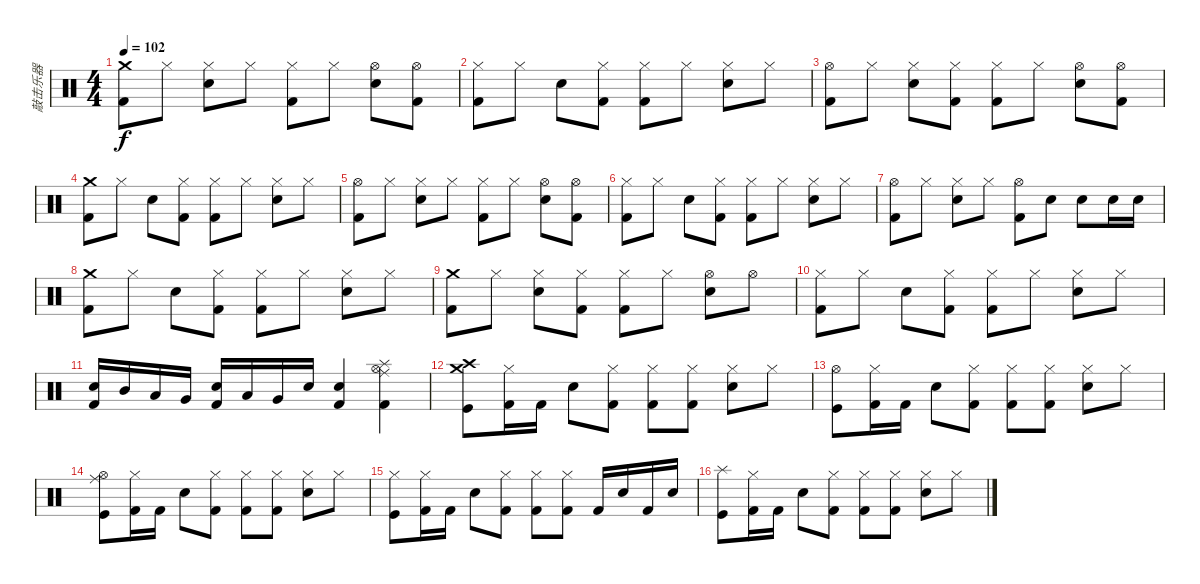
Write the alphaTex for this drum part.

\track ("敲击乐器" "敲击乐器") {instrument percussion}
\staff {score}
\articulation defaults
\ts (4 4)
\tempo 102
\clef neutral
\ks c
("Crash medium (hit)" "Kick (hit) 2").8{dy f} "Hi-Hat (closed)".8 ("Hi-Hat (closed)" "Electric Snare (hit)").8 "Hi-Hat (closed)".8 ("Hi-Hat (closed)" "Kick (hit) 2").8 "Hi-Hat (closed)".8 ("Hi-Hat (open)" "Electric Snare (hit)").8 ("Hi-Hat (open)" "Kick (hit) 2").8 |
("Hi-Hat (closed)" "Kick (hit) 2").8 "Hi-Hat (closed)".8 "Electric Snare (hit)".8 ("Hi-Hat (closed)" "Kick (hit) 2").8 ("Hi-Hat (closed)" "Kick (hit) 2").8 "Hi-Hat (closed)".8 ("Hi-Hat (closed)" "Electric Snare (hit)").8 "Hi-Hat (closed)".8 |
("Hi-Hat (open)" "Kick (hit) 2").8 "Hi-Hat (closed)".8 ("Hi-Hat (closed)" "Electric Snare (hit)").8 ("Hi-Hat (closed)" "Kick (hit) 2").8 ("Hi-Hat (closed)" "Kick (hit) 2").8 "Hi-Hat (closed)".8 ("Hi-Hat (open)" "Electric Snare (hit)").8 ("Hi-Hat (open)" "Kick (hit) 2").8 |
("Crash medium (hit)" "Kick (hit) 2").8 "Hi-Hat (closed)".8 "Electric Snare (hit)".8 ("Hi-Hat (closed)" "Kick (hit) 2").8 ("Hi-Hat (closed)" "Kick (hit) 2").8 "Hi-Hat (closed)".8 ("Hi-Hat (closed)" "Electric Snare (hit)").8 "Hi-Hat (closed)".8 |
("Hi-Hat (open)" "Kick (hit) 2").8 "Hi-Hat (closed)".8 ("Hi-Hat (closed)" "Electric Snare (hit)").8 "Hi-Hat (closed)".8 ("Hi-Hat (closed)" "Kick (hit) 2").8 "Hi-Hat (closed)".8 ("Hi-Hat (open)" "Electric Snare (hit)").8 ("Hi-Hat (open)" "Kick (hit) 2").8 |
("Hi-Hat (closed)" "Kick (hit) 2").8 "Hi-Hat (closed)".8 "Electric Snare (hit)".8 ("Hi-Hat (closed)" "Kick (hit) 2").8 ("Hi-Hat (closed)" "Kick (hit) 2").8 "Hi-Hat (closed)".8 ("Hi-Hat (closed)" "Electric Snare (hit)").8 "Hi-Hat (closed)".8 |
("Hi-Hat (open)" "Kick (hit) 2").8 "Hi-Hat (closed)".8 ("Hi-Hat (closed)" "Electric Snare (hit)").8 "Hi-Hat (closed)".8 ("Hi-Hat (open)" "Kick (hit) 2").8 "Electric Snare (hit)".8 "Electric Snare (hit)".8 "Electric Snare (hit)".16 "Electric Snare (hit)".16 |
("Crash medium (hit)" "Kick (hit) 2").8 "Hi-Hat (closed)".8 "Electric Snare (hit)".8 ("Hi-Hat (closed)" "Kick (hit) 2").8 ("Hi-Hat (closed)" "Kick (hit) 2").8 "Hi-Hat (closed)".8 ("Hi-Hat (closed)" "Electric Snare (hit)").8 "Hi-Hat (closed)".8 |
("Crash medium (hit)" "Kick (hit) 2").8 "Hi-Hat (closed)".8 ("Hi-Hat (closed)" "Electric Snare (hit)").8 ("Hi-Hat (closed)" "Kick (hit) 2").8 ("Hi-Hat (closed)" "Kick (hit) 2").8 "Hi-Hat (closed)".8 ("Hi-Hat (open)" "Electric Snare (hit)").8 "Hi-Hat (open)".8 |
("Hi-Hat (closed)" "Kick (hit) 2").8 "Hi-Hat (closed)".8 "Electric Snare (hit)".8 ("Hi-Hat (closed)" "Kick (hit) 2").8 ("Hi-Hat (closed)" "Kick (hit) 2").8 "Hi-Hat (closed)".8 ("Hi-Hat (closed)" "Electric Snare (hit)").8 "Hi-Hat (closed)".8 |
("Electric Snare (hit)" "Kick (hit) 2").16 "Mid Tom (hit)".16 "Low Tom (hit)".16 "Very Low Tom (hit)".16 ("Electric Snare (hit)" "Kick (hit) 2").16 "Low Tom (hit)".16 "Very Low Tom (hit)".16 "Electric Snare (hit)".16 ("Electric Snare (hit)" "Kick (hit) 2").4 ("Splash (hit)" "Ride (middle)" "Hi-Hat (open)" "Kick (hit) 2").4 |
("Crash medium (hit)" "Crash high (hit)" "Kick (hit)").8 ("Hi-Hat (closed)" "Kick (hit) 2").16 "Kick (hit) 2".16 "Electric Snare (hit)".8 ("Hi-Hat (closed)" "Kick (hit) 2").8 ("Hi-Hat (closed)" "Kick (hit) 2").8 ("Hi-Hat (closed)" "Kick (hit) 2").8 ("Hi-Hat (closed)" "Electric Snare (hit)").8 "Hi-Hat (closed)".8 |
("Hi-Hat (open)" "Kick (hit)").8 ("Hi-Hat (closed)" "Kick (hit) 2").16 "Kick (hit) 2".16 "Electric Snare (hit)".8 ("Hi-Hat (closed)" "Kick (hit) 2").8 ("Hi-Hat (closed)" "Kick (hit) 2").8 ("Hi-Hat (closed)" "Kick (hit) 2").8 ("Hi-Hat (closed)" "Electric Snare (hit)").8 "Hi-Hat (closed)".8 |
("Ride (middle)" "Hi-Hat (open)" "Kick (hit)").8 ("Hi-Hat (closed)" "Kick (hit) 2").16 "Kick (hit) 2".16 "Electric Snare (hit)".8 ("Hi-Hat (closed)" "Kick (hit) 2").8 ("Hi-Hat (closed)" "Kick (hit) 2").8 ("Hi-Hat (closed)" "Kick (hit) 2").8 ("Hi-Hat (closed)" "Electric Snare (hit)").8 "Hi-Hat (closed)".8 |
("Hi-Hat (closed)" "Kick (hit)").8 ("Hi-Hat (closed)" "Kick (hit) 2").16 "Kick (hit) 2".16 "Electric Snare (hit)".8 ("Hi-Hat (closed)" "Kick (hit) 2").8 ("Hi-Hat (closed)" "Kick (hit) 2").8 ("Hi-Hat (closed)" "Kick (hit) 2").8 "Kick (hit) 2".16 "Electric Snare (hit)".16 "Kick (hit) 2".16 "Electric Snare (hit)".16 |
("Splash (hit)" "Kick (hit)").8 ("Hi-Hat (closed)" "Kick (hit) 2").16 "Kick (hit) 2".16 "Electric Snare (hit)".8 ("Hi-Hat (closed)" "Kick (hit) 2").8 ("Hi-Hat (closed)" "Kick (hit) 2").8 ("Hi-Hat (closed)" "Kick (hit) 2").8 ("Hi-Hat (closed)" "Electric Snare (hit)").8 "Hi-Hat (closed)".8
